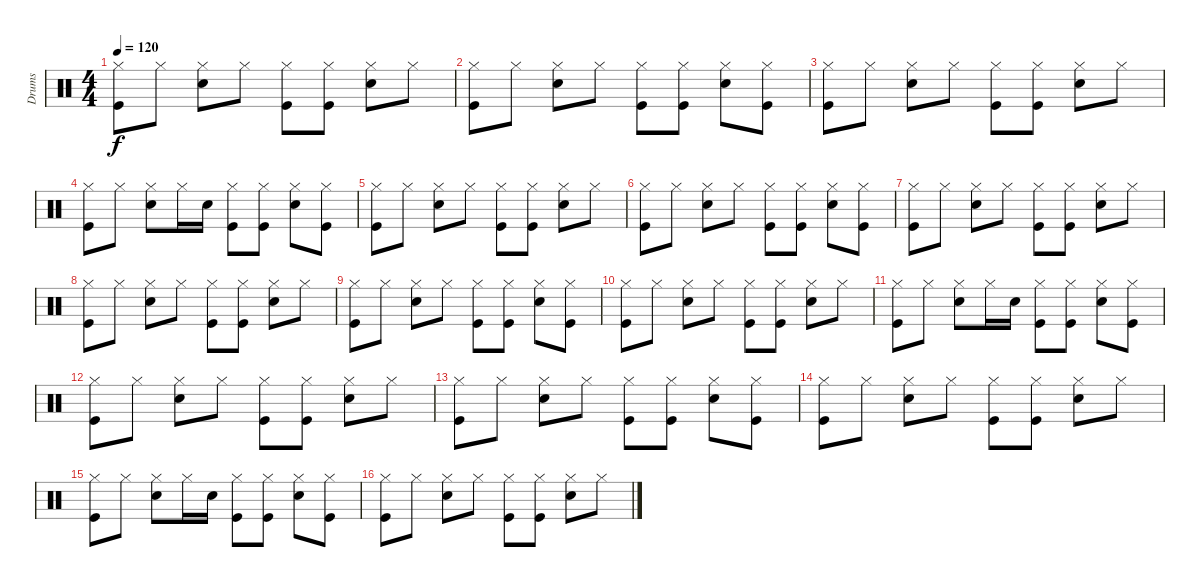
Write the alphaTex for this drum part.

\track ("Drums" "Drums") {instrument percussion}
\staff {score}
\articulation defaults
\ts (4 4)
\tempo 120
\clef neutral
\ks c
("Hi-Hat (closed)" "Kick (hit)").8{dy f} "Hi-Hat (closed)".8 ("Hi-Hat (closed)" "Snare (hit) 2").8 "Hi-Hat (closed)".8 ("Hi-Hat (closed)" "Kick (hit)").8 ("Hi-Hat (closed)" "Kick (hit)").8 ("Hi-Hat (closed)" "Snare (hit) 2").8 "Hi-Hat (closed)".8 |
("Hi-Hat (closed)" "Kick (hit)").8 "Hi-Hat (closed)".8 ("Hi-Hat (closed)" "Snare (hit) 2").8 "Hi-Hat (closed)".8 ("Hi-Hat (closed)" "Kick (hit)").8 ("Hi-Hat (closed)" "Kick (hit)").8 ("Hi-Hat (closed)" "Snare (hit) 2").8 ("Hi-Hat (closed)" "Kick (hit)").8 |
("Hi-Hat (closed)" "Kick (hit)").8 "Hi-Hat (closed)".8 ("Hi-Hat (closed)" "Snare (hit) 2").8 "Hi-Hat (closed)".8 ("Hi-Hat (closed)" "Kick (hit)").8 ("Hi-Hat (closed)" "Kick (hit)").8 ("Hi-Hat (closed)" "Snare (hit) 2").8 "Hi-Hat (closed)".8 |
("Hi-Hat (closed)" "Kick (hit)").8 "Hi-Hat (closed)".8 ("Hi-Hat (closed)" "Snare (hit) 2").8 "Hi-Hat (closed)".16 "Snare (hit) 2".16 ("Hi-Hat (closed)" "Kick (hit)").8 ("Hi-Hat (closed)" "Kick (hit)").8 ("Hi-Hat (closed)" "Snare (hit) 2").8 ("Hi-Hat (closed)" "Kick (hit)").8 |
("Hi-Hat (closed)" "Kick (hit)").8 "Hi-Hat (closed)".8 ("Hi-Hat (closed)" "Snare (hit) 2").8 "Hi-Hat (closed)".8 ("Hi-Hat (closed)" "Kick (hit)").8 ("Hi-Hat (closed)" "Kick (hit)").8 ("Hi-Hat (closed)" "Snare (hit) 2").8 "Hi-Hat (closed)".8 |
("Hi-Hat (closed)" "Kick (hit)").8 "Hi-Hat (closed)".8 ("Hi-Hat (closed)" "Snare (hit) 2").8 "Hi-Hat (closed)".8 ("Hi-Hat (closed)" "Kick (hit)").8 ("Hi-Hat (closed)" "Kick (hit)").8 ("Hi-Hat (closed)" "Snare (hit) 2").8 ("Hi-Hat (closed)" "Kick (hit)").8 |
("Hi-Hat (closed)" "Kick (hit)").8 "Hi-Hat (closed)".8 ("Hi-Hat (closed)" "Snare (hit) 2").8 "Hi-Hat (closed)".8 ("Hi-Hat (closed)" "Kick (hit)").8 ("Hi-Hat (closed)" "Kick (hit)").8 ("Hi-Hat (closed)" "Snare (hit) 2").8 "Hi-Hat (closed)".8 |
("Hi-Hat (closed)" "Kick (hit)").8 "Hi-Hat (closed)".8 ("Hi-Hat (closed)" "Snare (hit) 2").8 "Hi-Hat (closed)".8 ("Hi-Hat (closed)" "Kick (hit)").8 ("Hi-Hat (closed)" "Kick (hit)").8 ("Hi-Hat (closed)" "Snare (hit) 2").8 "Hi-Hat (closed)".8 |
("Hi-Hat (closed)" "Kick (hit)").8 "Hi-Hat (closed)".8 ("Hi-Hat (closed)" "Snare (hit) 2").8 "Hi-Hat (closed)".8 ("Hi-Hat (closed)" "Kick (hit)").8 ("Hi-Hat (closed)" "Kick (hit)").8 ("Hi-Hat (closed)" "Snare (hit) 2").8 ("Hi-Hat (closed)" "Kick (hit)").8 |
("Hi-Hat (closed)" "Kick (hit)").8 "Hi-Hat (closed)".8 ("Hi-Hat (closed)" "Snare (hit) 2").8 "Hi-Hat (closed)".8 ("Hi-Hat (closed)" "Kick (hit)").8 ("Hi-Hat (closed)" "Kick (hit)").8 ("Hi-Hat (closed)" "Snare (hit) 2").8 "Hi-Hat (closed)".8 |
("Hi-Hat (closed)" "Kick (hit)").8 "Hi-Hat (closed)".8 ("Hi-Hat (closed)" "Snare (hit) 2").8 "Hi-Hat (closed)".16 "Snare (hit) 2".16 ("Hi-Hat (closed)" "Kick (hit)").8 ("Hi-Hat (closed)" "Kick (hit)").8 ("Hi-Hat (closed)" "Snare (hit) 2").8 ("Hi-Hat (closed)" "Kick (hit)").8 |
("Hi-Hat (closed)" "Kick (hit)").8 "Hi-Hat (closed)".8 ("Hi-Hat (closed)" "Snare (hit) 2").8 "Hi-Hat (closed)".8 ("Hi-Hat (closed)" "Kick (hit)").8 ("Hi-Hat (closed)" "Kick (hit)").8 ("Hi-Hat (closed)" "Snare (hit) 2").8 "Hi-Hat (closed)".8 |
("Hi-Hat (closed)" "Kick (hit)").8 "Hi-Hat (closed)".8 ("Hi-Hat (closed)" "Snare (hit) 2").8 "Hi-Hat (closed)".8 ("Hi-Hat (closed)" "Kick (hit)").8 ("Hi-Hat (closed)" "Kick (hit)").8 ("Hi-Hat (closed)" "Snare (hit) 2").8 ("Hi-Hat (closed)" "Kick (hit)").8 |
("Hi-Hat (closed)" "Kick (hit)").8 "Hi-Hat (closed)".8 ("Hi-Hat (closed)" "Snare (hit) 2").8 "Hi-Hat (closed)".8 ("Hi-Hat (closed)" "Kick (hit)").8 ("Hi-Hat (closed)" "Kick (hit)").8 ("Hi-Hat (closed)" "Snare (hit) 2").8 "Hi-Hat (closed)".8 |
("Hi-Hat (closed)" "Kick (hit)").8 "Hi-Hat (closed)".8 ("Hi-Hat (closed)" "Snare (hit) 2").8 "Hi-Hat (closed)".16 "Snare (hit) 2".16 ("Hi-Hat (closed)" "Kick (hit)").8 ("Hi-Hat (closed)" "Kick (hit)").8 ("Hi-Hat (closed)" "Snare (hit) 2").8 ("Hi-Hat (closed)" "Kick (hit)").8 |
("Hi-Hat (closed)" "Kick (hit)").8 "Hi-Hat (closed)".8 ("Hi-Hat (closed)" "Snare (hit) 2").8 "Hi-Hat (closed)".8 ("Hi-Hat (closed)" "Kick (hit)").8 ("Hi-Hat (closed)" "Kick (hit)").8 ("Hi-Hat (closed)" "Snare (hit) 2").8 "Hi-Hat (closed)".8
